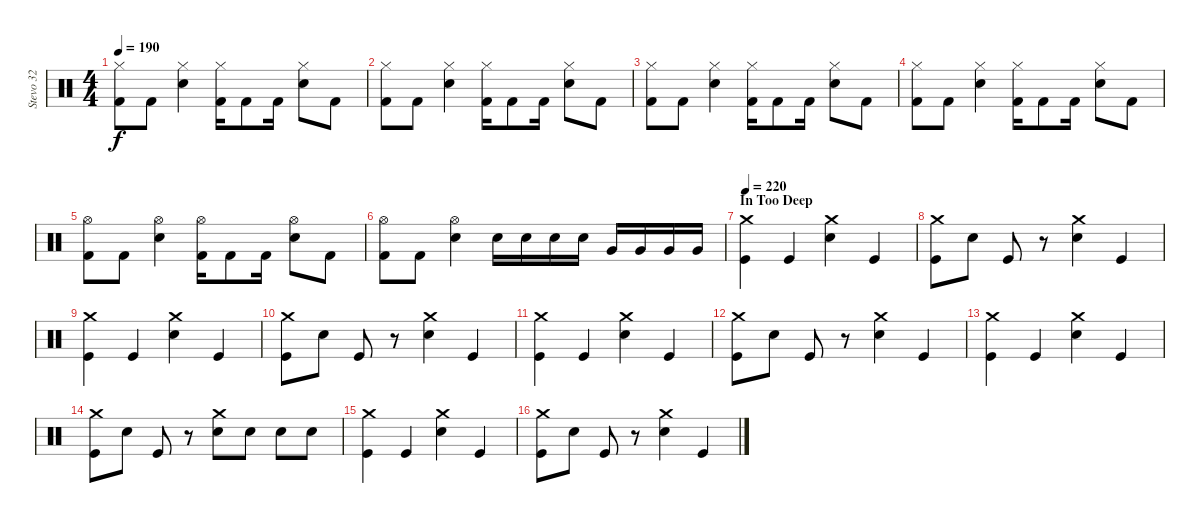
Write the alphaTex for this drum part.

\track ("Stevo 32" "Stevo 32") {instrument percussion}
\staff {score}
\articulation defaults
\ts (4 4)
\tempo 190
\clef neutral
\ks c
("Hi-Hat (closed)" "Kick (hit) 2").8{dy f} "Kick (hit) 2".8 ("Hi-Hat (closed)" "Snare (hit) 2").4 ("Hi-Hat (closed)" "Kick (hit) 2").16 "Kick (hit) 2".8 "Kick (hit) 2".16 ("Hi-Hat (closed)" "Snare (hit) 2").8 "Kick (hit) 2".8 |
("Hi-Hat (closed)" "Kick (hit) 2").8 "Kick (hit) 2".8 ("Hi-Hat (closed)" "Snare (hit) 2").4 ("Hi-Hat (closed)" "Kick (hit) 2").16 "Kick (hit) 2".8 "Kick (hit) 2".16 ("Hi-Hat (closed)" "Snare (hit) 2").8 "Kick (hit) 2".8 |
("Hi-Hat (closed)" "Kick (hit) 2").8 "Kick (hit) 2".8 ("Hi-Hat (closed)" "Snare (hit) 2").4 ("Hi-Hat (closed)" "Kick (hit) 2").16 "Kick (hit) 2".8 "Kick (hit) 2".16 ("Hi-Hat (closed)" "Snare (hit) 2").8 "Kick (hit) 2".8 |
("Hi-Hat (closed)" "Kick (hit) 2").8 "Kick (hit) 2".8 ("Hi-Hat (closed)" "Snare (hit) 2").4 ("Hi-Hat (closed)" "Kick (hit) 2").16 "Kick (hit) 2".8 "Kick (hit) 2".16 ("Hi-Hat (closed)" "Snare (hit) 2").8 "Kick (hit) 2".8 |
("Hi-Hat (open)" "Kick (hit) 2").8 "Kick (hit) 2".8 ("Hi-Hat (open)" "Snare (hit) 2").4 ("Hi-Hat (open)" "Kick (hit) 2").16 "Kick (hit) 2".8 "Kick (hit) 2".16 ("Hi-Hat (open)" "Snare (hit) 2").8 "Kick (hit) 2".8 |
("Hi-Hat (open)" "Kick (hit) 2").8 "Kick (hit) 2".8 ("Hi-Hat (open)" "Snare (hit) 2").4 "Snare (hit) 2".16 "Snare (hit) 2".16 "Snare (hit) 2".16 "Snare (hit) 2".16 "Very Low Tom (hit)".16 "Very Low Tom (hit)".16 "Very Low Tom (hit)".16 "Very Low Tom (hit)".16 |
\section ("" "In Too Deep")
\tempo 220
("Crash medium (hit)" "Kick (hit)").4 "Kick (hit)".4 ("Crash medium (hit)" "Snare (hit) 2").4 "Kick (hit)".4 |
("Crash medium (hit)" "Kick (hit)").8 "Snare (hit) 2".8 "Kick (hit)".8 r.8 ("Crash medium (hit)" "Snare (hit) 2").4 "Kick (hit)".4 |
("Crash medium (hit)" "Kick (hit)").4 "Kick (hit)".4 ("Crash medium (hit)" "Snare (hit) 2").4 "Kick (hit)".4 |
("Crash medium (hit)" "Kick (hit)").8 "Snare (hit) 2".8 "Kick (hit)".8 r.8 ("Crash medium (hit)" "Snare (hit) 2").4 "Kick (hit)".4 |
("Crash medium (hit)" "Kick (hit)").4 "Kick (hit)".4 ("Crash medium (hit)" "Snare (hit) 2").4 "Kick (hit)".4 |
("Crash medium (hit)" "Kick (hit)").8 "Snare (hit) 2".8 "Kick (hit)".8 r.8 ("Crash medium (hit)" "Snare (hit) 2").4 "Kick (hit)".4 |
("Crash medium (hit)" "Kick (hit)").4 "Kick (hit)".4 ("Crash medium (hit)" "Snare (hit) 2").4 "Kick (hit)".4 |
("Crash medium (hit)" "Kick (hit)").8 "Snare (hit) 2".8 "Kick (hit)".8 r.8 ("Crash medium (hit)" "Snare (hit) 2").8 "Snare (hit) 2".8 "Snare (hit) 2".8 "Snare (hit) 2".8 |
("Crash medium (hit)" "Kick (hit)").4 "Kick (hit)".4 ("Crash medium (hit)" "Snare (hit) 2").4 "Kick (hit)".4 |
("Crash medium (hit)" "Kick (hit)").8 "Snare (hit) 2".8 "Kick (hit)".8 r.8 ("Crash medium (hit)" "Snare (hit) 2").4 "Kick (hit)".4
